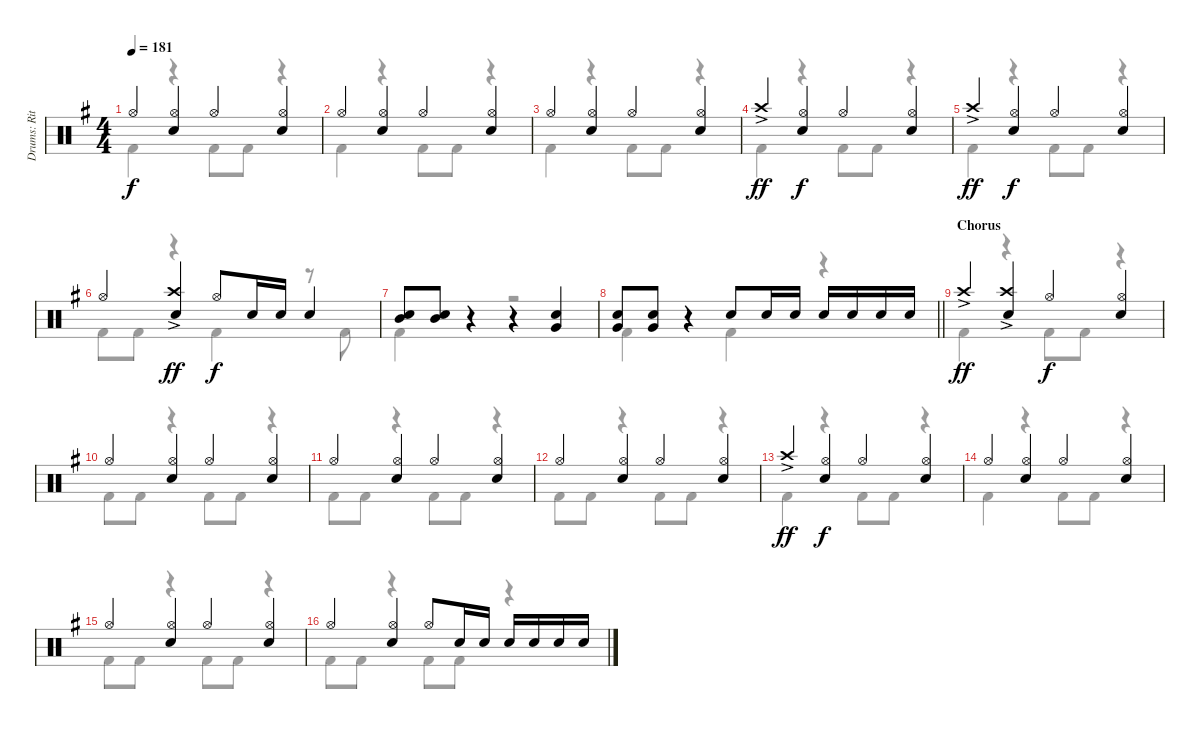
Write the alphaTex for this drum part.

\track ("Drums: Ritsu Tianaka" "Drums: Rit") {instrument percussion}
\staff {score}
\articulation defaults
\voice
\ts (4 4)
\tempo 181
\clef neutral
\ks g "Hi-Hat (open)".4{dy f}
("Hi-Hat (open)" "Snare (hit) 2").4 "Hi-Hat (open)".4 ("Hi-Hat (open)" "Snare (hit) 2").4 |
"Hi-Hat (open)".4 ("Hi-Hat (open)" "Snare (hit) 2").4 "Hi-Hat (open)".4 ("Hi-Hat (open)" "Snare (hit) 2").4 |
"Hi-Hat (open)".4 ("Hi-Hat (open)" "Snare (hit) 2").4 "Hi-Hat (open)".4 ("Hi-Hat (open)" "Snare (hit) 2").4 |
"Crash high (hit)"{ac}.4{dy ff} ("Hi-Hat (open)" "Snare (hit) 2").4{dy f} "Hi-Hat (open)".4 ("Hi-Hat (open)" "Snare (hit) 2").4 |
"Crash high (hit)"{ac}.4{dy ff} ("Hi-Hat (open)" "Snare (hit) 2").4{dy f} "Hi-Hat (open)".4 ("Hi-Hat (open)" "Snare (hit) 2").4 |
"Hi-Hat (open)".4 ("Crash high (hit)"{ac} "Snare (hit) 2").4{dy ff} "Hi-Hat (open)".8{dy f} "Snare (hit) 2".16 "Snare (hit) 2".16 "Snare (hit) 2".4 |
("Mid Tom (hit)" "Snare (hit) 2").8 ("Mid Tom (hit)" "Snare (hit) 2").8 r.4 r.4 ("Snare (hit) 2" "Very Low Tom (hit)").4 |
\barLineRight lightlight
("Snare (hit) 2" "Very Low Tom (hit)").8 ("Snare (hit) 2" "Very Low Tom (hit)").8 r.4 "Snare (hit) 2".8 "Snare (hit) 2".16 "Snare (hit) 2".16 "Snare (hit) 2".16 "Snare (hit) 2".16 "Snare (hit) 2".16 "Snare (hit) 2".16 |
\section ("" "Chorus")
"Crash high (hit)"{ac}.4{dy ff} ("Crash high (hit)"{ac} "Snare (hit) 2").4 "Hi-Hat (open)".4{dy f} ("Hi-Hat (open)" "Snare (hit) 2").4 |
"Hi-Hat (open)".4 ("Hi-Hat (open)" "Snare (hit) 2").4 "Hi-Hat (open)".4 ("Hi-Hat (open)" "Snare (hit) 2").4 |
"Hi-Hat (open)".4 ("Hi-Hat (open)" "Snare (hit) 2").4 "Hi-Hat (open)".4 ("Hi-Hat (open)" "Snare (hit) 2").4 |
"Hi-Hat (open)".4 ("Hi-Hat (open)" "Snare (hit) 2").4 "Hi-Hat (open)".4 ("Hi-Hat (open)" "Snare (hit) 2").4 |
"Crash high (hit)"{ac}.4{dy ff} ("Hi-Hat (open)" "Snare (hit) 2").4{dy f} "Hi-Hat (open)".4 ("Hi-Hat (open)" "Snare (hit) 2").4 |
"Hi-Hat (open)".4 ("Hi-Hat (open)" "Snare (hit) 2").4 "Hi-Hat (open)".4 ("Hi-Hat (open)" "Snare (hit) 2").4 |
"Hi-Hat (open)".4 ("Hi-Hat (open)" "Snare (hit) 2").4 "Hi-Hat (open)".4 ("Hi-Hat (open)" "Snare (hit) 2").4 |
"Hi-Hat (open)".4 ("Hi-Hat (open)" "Snare (hit) 2").4 "Hi-Hat (open)".8 "Snare (hit) 2".16 "Snare (hit) 2".16 "Snare (hit) 2".16 "Snare (hit) 2".16 "Snare (hit) 2".16 "Snare (hit) 2".16
\voice
\clef neutral
\ottava regular
\simile none
\ks g "Kick (hit) 2".4{dy f}
r.4 "Kick (hit) 2".8 "Kick (hit) 2".8 r.4 |
"Kick (hit) 2".4 r.4 "Kick (hit) 2".8 "Kick (hit) 2".8 r.4 |
"Kick (hit) 2".4 r.4 "Kick (hit) 2".8 "Kick (hit) 2".8 r.4 |
"Kick (hit) 2".4 r.4 "Kick (hit) 2".8 "Kick (hit) 2".8 r.4 |
"Kick (hit) 2".4 r.4 "Kick (hit) 2".8 "Kick (hit) 2".8 r.4 |
"Kick (hit) 2".8 "Kick (hit) 2".8 r.4 "Kick (hit) 2".4 r.8 "Kick (hit) 2".8 |
"Kick (hit) 2".4 r.4 r.2 |
\barLineRight lightlight "Kick (hit) 2".4
r.4 "Kick (hit) 2".4 r.4 |
"Kick (hit) 2".4 r.4 "Kick (hit) 2".8 "Kick (hit) 2".8 r.4 |
"Kick (hit) 2".8 "Kick (hit) 2".8 r.4 "Kick (hit) 2".8 "Kick (hit) 2".8 r.4 |
"Kick (hit) 2".8 "Kick (hit) 2".8 r.4 "Kick (hit) 2".8 "Kick (hit) 2".8 r.4 |
"Kick (hit) 2".8 "Kick (hit) 2".8 r.4 "Kick (hit) 2".8 "Kick (hit) 2".8 r.4 |
"Kick (hit) 2".4 r.4 "Kick (hit) 2".8 "Kick (hit) 2".8 r.4 |
"Kick (hit) 2".4 r.4 "Kick (hit) 2".8 "Kick (hit) 2".8 r.4 |
"Kick (hit) 2".8 "Kick (hit) 2".8 r.4 "Kick (hit) 2".8 "Kick (hit) 2".8 r.4 |
"Kick (hit) 2".8 "Kick (hit) 2".8 r.4 "Kick (hit) 2".8 "Kick (hit) 2".8 r.4
